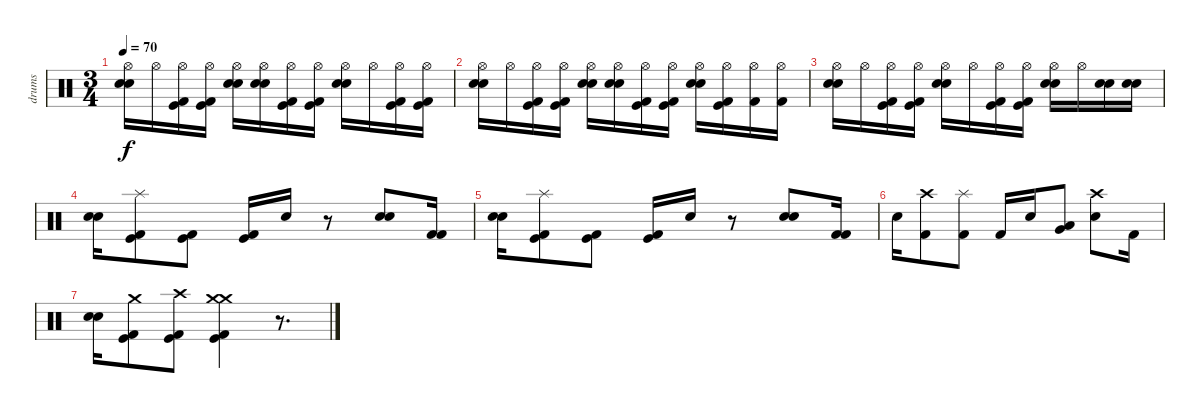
\track ("drums" "drums") {instrument percussion}
\staff {score}
\articulation defaults
\ts (3 4)
\tempo 70
\clef neutral
\ks c
("Hi-Hat (open)" "Electric Snare (hit)" "Electric Snare (hit)").16{dy f} "Hi-Hat (open)".16 ("Hi-Hat (open)" "Kick (hit) 2" "Kick (hit)").16 ("Hi-Hat (open)" "Kick (hit) 2" "Kick (hit)").16 ("Hi-Hat (open)" "Electric Snare (hit)" "Electric Snare (hit)").16 ("Hi-Hat (open)" "Electric Snare (hit)" "Electric Snare (hit)").16 ("Hi-Hat (open)" "Kick (hit) 2" "Kick (hit)").16 ("Hi-Hat (open)" "Kick (hit) 2" "Kick (hit)").16 ("Hi-Hat (open)" "Electric Snare (hit)" "Electric Snare (hit)").16 "Hi-Hat (open)".16 ("Hi-Hat (open)" "Kick (hit) 2" "Kick (hit)").16 ("Hi-Hat (open)" "Kick (hit) 2" "Kick (hit)").16 |
("Hi-Hat (open)" "Electric Snare (hit)" "Electric Snare (hit)").16 "Hi-Hat (open)".16 ("Hi-Hat (open)" "Kick (hit) 2" "Kick (hit)").16 ("Hi-Hat (open)" "Kick (hit) 2" "Kick (hit)").16 ("Hi-Hat (open)" "Electric Snare (hit)" "Electric Snare (hit)").16 ("Hi-Hat (open)" "Electric Snare (hit)" "Electric Snare (hit)").16 ("Hi-Hat (open)" "Kick (hit) 2" "Kick (hit)").16 ("Hi-Hat (open)" "Kick (hit) 2" "Kick (hit)").16 ("Hi-Hat (open)" "Electric Snare (hit)" "Electric Snare (hit)").16 ("Hi-Hat (open)" "Kick (hit) 2" "Kick (hit)").16 ("Hi-Hat (open)" "Kick (hit) 2").16 ("Hi-Hat (open)" "Kick (hit) 2").16 |
("Hi-Hat (open)" "Electric Snare (hit)" "Electric Snare (hit)").16 "Hi-Hat (open)".16 ("Hi-Hat (open)" "Kick (hit) 2" "Kick (hit)").16 ("Hi-Hat (open)" "Kick (hit) 2" "Kick (hit)").16 ("Hi-Hat (open)" "Electric Snare (hit)" "Electric Snare (hit)").16 "Hi-Hat (open)".16 ("Hi-Hat (open)" "Kick (hit) 2" "Kick (hit)").16 ("Hi-Hat (open)" "Kick (hit) 2" "Kick (hit)").16 ("Hi-Hat (open)" "Electric Snare (hit)" "Electric Snare (hit)").16 "Hi-Hat (open)".16 ("Snare (hit) 2" "Electric Snare (hit)").16 ("Snare (hit) 2" "Electric Snare (hit)").16 |
("Electric Snare (hit)" "Electric Snare (hit)").16 ("Splash (hit)" "Kick (hit) 2" "Kick (hit)").8 ("Kick (hit) 2" "Kick (hit)").8 ("Kick (hit) 2" "Kick (hit)").16 "Electric Snare (hit)".16 r.8 ("Electric Snare (hit)" "Electric Snare (hit)").8 ("Kick (hit) 2" "Kick (hit) 2").16 |
("Electric Snare (hit)" "Electric Snare (hit)").16 ("Splash (hit)" "Kick (hit) 2" "Kick (hit)").8 ("Kick (hit) 2" "Kick (hit)").8 ("Kick (hit) 2" "Kick (hit)").16 "Electric Snare (hit)".16 r.8 ("Electric Snare (hit)" "Electric Snare (hit)").8 ("Kick (hit) 2" "Kick (hit) 2").16 |
"Electric Snare (hit)".16 ("Crash high (hit)" "Kick (hit) 2").8 ("Kick (hit) 2" "Splash (hit)").8 "Kick (hit) 2".16 "Electric Snare (hit)".16 ("Low Floor Tom (hit)" "Very Low Tom (hit)").8 ("Crash high (hit)" "Electric Snare (hit)").8 "Kick (hit) 2".16 |
("Electric Snare (hit)" "Electric Snare (hit)").16 ("Kick (hit) 2" "Crash medium (hit)" "Kick (hit)").8 ("Kick (hit) 2" "Crash high (hit)" "Kick (hit)").8 ("Kick (hit) 2" "Crash medium (hit)" "Crash medium (hit)" "Kick (hit)").4 r.8{d}
